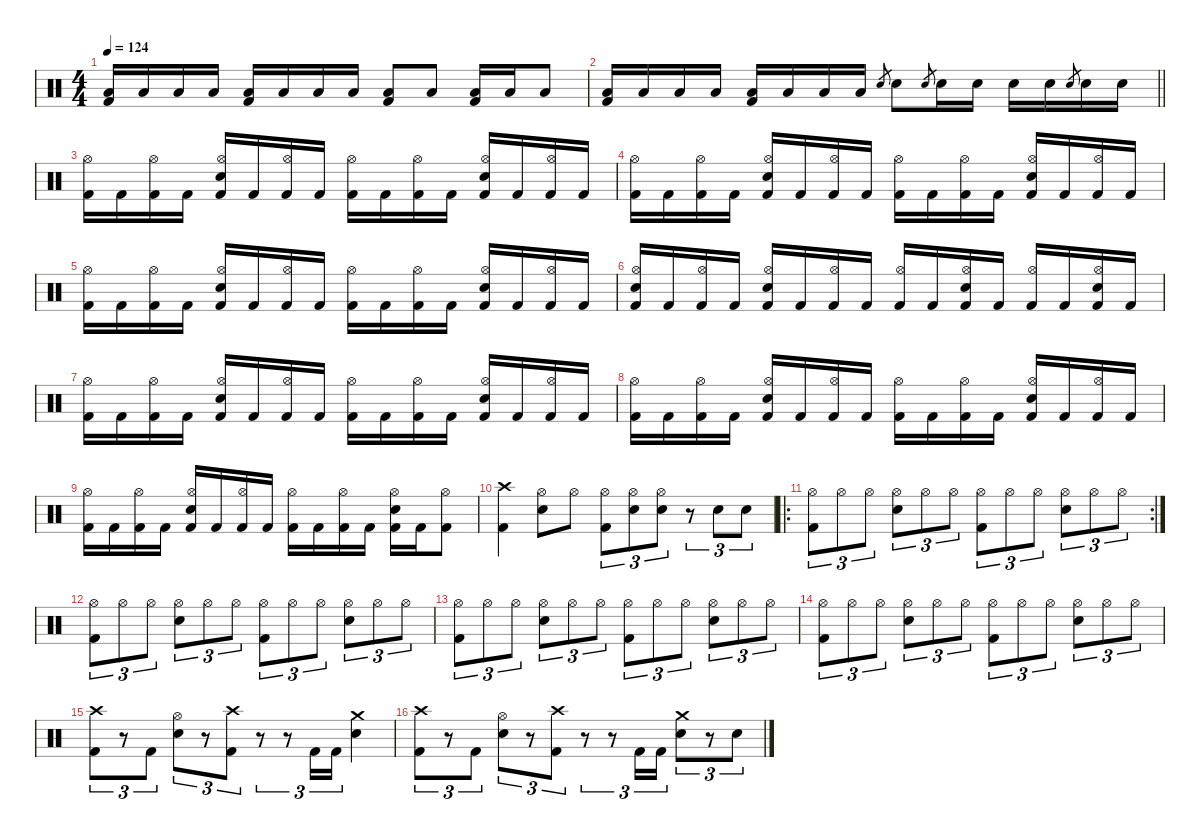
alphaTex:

\defaultSystemsLayout 4
\hideDynamics
\bracketExtendMode nobrackets
\singleTrackTrackNamePolicy hidden
\multiTrackTrackNamePolicy hidden
\otherSystemsTrackNameOrientation horizontal
\track ("Drums" "drm.") {defaultSystemsLayout 4 instrument percussion}
\staff {score}
\articulation defaults
\ts (4 4)
\tempo 124
\clef neutral
\ks c
("Low Floor Tom (hit)" "Kick (hit) 2").16{dy mf beam Up} "Low Floor Tom (hit)".16{dy mp beam Up} "Low Floor Tom (hit)".16{dy mf beam Up} "Low Floor Tom (hit)".16{dy mp beam Up} ("Low Floor Tom (hit)" "Kick (hit) 2").16{dy mf beam Up} "Low Floor Tom (hit)".16{dy mp beam Up} "Low Floor Tom (hit)".16{dy mf beam Up} "Low Floor Tom (hit)".16{dy p beam Up} ("Low Floor Tom (hit)" "Kick (hit) 2").8{dy mf beam Up} "Low Floor Tom (hit)".8{beam Up} ("Low Floor Tom (hit)" "Kick (hit) 2").16{beam Up} "Low Floor Tom (hit)".16{dy mp beam Up} "Low Floor Tom (hit)".8{dy mf beam Up} |
\barLineRight lightlight
("Low Floor Tom (hit)" "Kick (hit) 2").16{beam Up} "Low Floor Tom (hit)".16{dy mp beam Up} "Low Floor Tom (hit)".16{dy mf beam Up} "Low Floor Tom (hit)".16{dy mp beam Up} ("Low Floor Tom (hit)" "Kick (hit) 2").16{dy mf beam Up} "Low Floor Tom (hit)".16{dy mp beam Up} "Low Floor Tom (hit)".16{dy mf beam Up} "Low Floor Tom (hit)".16{dy p beam Up} "Electric Snare (hit)".8{gr dy mp beam Up} "Snare (hit) 2".8{dy f beam Down} "Electric Snare (hit)".8{gr dy mp beam Up} "Snare (hit) 2".16{dy f beam Down} "Snare (hit) 2".16{beam Down} "Snare (hit) 2".16{beam Down} "Snare (hit) 2".16{beam Down} "Electric Snare (hit)".8{gr dy mp beam Up} "Snare (hit) 2".16{dy ff beam Down} "Snare (hit) 2".16{beam Down} |
("Hi-Hat (open)" "Kick (hit) 2").16{dy mf beam Down} "Kick (hit) 2".16{dy ff beam Down} ("Hi-Hat (open)" "Kick (hit) 2").16{dy mf beam Down} "Kick (hit) 2".16{dy ff beam Down} ("Hi-Hat (open)" "Snare (hit) 2" "Kick (hit) 2").16{dy mf beam Up} "Kick (hit) 2".16{dy ff beam Up} ("Hi-Hat (open)" "Kick (hit) 2").16{dy mf beam Up} "Kick (hit) 2".16{dy ff beam Up} ("Hi-Hat (open)" "Kick (hit) 2").16{dy mf beam Down} "Kick (hit) 2".16{dy ff beam Down} ("Hi-Hat (open)" "Kick (hit) 2").16{dy mf beam Down} "Kick (hit) 2".16{dy ff beam Down} ("Hi-Hat (open)" "Snare (hit) 2" "Kick (hit) 2").16{dy mf beam Up} "Kick (hit) 2".16{dy ff beam Up} ("Hi-Hat (open)" "Kick (hit) 2").16{dy mf beam Up} "Kick (hit) 2".16{dy ff beam Up} |
("Hi-Hat (open)" "Kick (hit) 2").16{dy mf beam Down} "Kick (hit) 2".16{dy ff beam Down} ("Hi-Hat (open)" "Kick (hit) 2").16{dy mf beam Down} "Kick (hit) 2".16{dy ff beam Down} ("Hi-Hat (open)" "Snare (hit) 2" "Kick (hit) 2").16{dy mf beam Up} "Kick (hit) 2".16{dy ff beam Up} ("Hi-Hat (open)" "Kick (hit) 2").16{dy mf beam Up} "Kick (hit) 2".16{dy ff beam Up} ("Hi-Hat (open)" "Kick (hit) 2").16{dy mf beam Down} "Kick (hit) 2".16{dy ff beam Down} ("Hi-Hat (open)" "Kick (hit) 2").16{dy mf beam Down} "Kick (hit) 2".16{dy ff beam Down} ("Hi-Hat (open)" "Snare (hit) 2" "Kick (hit) 2").16{dy mf beam Up} "Kick (hit) 2".16{dy ff beam Up} ("Hi-Hat (open)" "Kick (hit) 2").16{dy mf beam Up} "Kick (hit) 2".16{dy ff beam Up} |
("Hi-Hat (open)" "Kick (hit) 2").16{dy mf beam Down} "Kick (hit) 2".16{dy ff beam Down} ("Hi-Hat (open)" "Kick (hit) 2").16{dy mf beam Down} "Kick (hit) 2".16{dy ff beam Down} ("Hi-Hat (open)" "Snare (hit) 2" "Kick (hit) 2").16{dy mf beam Up} "Kick (hit) 2".16{dy ff beam Up} ("Hi-Hat (open)" "Kick (hit) 2").16{dy mf beam Up} "Kick (hit) 2".16{dy ff beam Up} ("Hi-Hat (open)" "Kick (hit) 2").16{dy mf beam Down} "Kick (hit) 2".16{dy ff beam Down} ("Hi-Hat (open)" "Kick (hit) 2").16{dy mf beam Down} "Kick (hit) 2".16{dy ff beam Down} ("Hi-Hat (open)" "Snare (hit) 2" "Kick (hit) 2").16{dy mf beam Up} "Kick (hit) 2".16{dy ff beam Up} ("Hi-Hat (open)" "Kick (hit) 2").16{dy mf beam Up} "Kick (hit) 2".16{dy ff beam Up} |
("Hi-Hat (open)" "Snare (hit) 2" "Kick (hit) 2").16{dy mf beam Up} "Kick (hit) 2".16{dy ff beam Up} ("Hi-Hat (open)" "Kick (hit) 2").16{dy mf beam Up} "Kick (hit) 2".16{dy ff beam Up} ("Hi-Hat (open)" "Snare (hit) 2" "Kick (hit) 2").16{dy mf beam Up} "Kick (hit) 2".16{dy ff beam Up} ("Hi-Hat (open)" "Kick (hit) 2").16{dy mf beam Up} "Kick (hit) 2".16{dy ff beam Up} ("Hi-Hat (open)" "Kick (hit) 2").16{dy mf beam Up} "Kick (hit) 2".16{dy ff beam Up} ("Hi-Hat (open)" "Snare (hit) 2" "Kick (hit) 2").16{dy mf beam Up} "Kick (hit) 2".16{dy ff beam Up} ("Hi-Hat (open)" "Kick (hit) 2").16{dy mf beam Up} "Kick (hit) 2".16{dy ff beam Up} ("Hi-Hat (open)" "Snare (hit) 2" "Kick (hit) 2").16{dy mf beam Up} "Kick (hit) 2".16{dy ff beam Up} |
("Hi-Hat (open)" "Kick (hit) 2").16{dy mf beam Down} "Kick (hit) 2".16{dy ff beam Down} ("Hi-Hat (open)" "Kick (hit) 2").16{dy mf beam Down} "Kick (hit) 2".16{dy ff beam Down} ("Hi-Hat (open)" "Snare (hit) 2" "Kick (hit) 2").16{dy mf beam Up} "Kick (hit) 2".16{dy ff beam Up} ("Hi-Hat (open)" "Kick (hit) 2").16{dy mf beam Up} "Kick (hit) 2".16{dy ff beam Up} ("Hi-Hat (open)" "Kick (hit) 2").16{dy mf beam Down} "Kick (hit) 2".16{dy ff beam Down} ("Hi-Hat (open)" "Kick (hit) 2").16{dy mf beam Down} "Kick (hit) 2".16{dy ff beam Down} ("Hi-Hat (open)" "Snare (hit) 2" "Kick (hit) 2").16{dy mf beam Up} "Kick (hit) 2".16{dy ff beam Up} ("Hi-Hat (open)" "Kick (hit) 2").16{dy mf beam Up} "Kick (hit) 2".16{dy ff beam Up} |
("Hi-Hat (open)" "Kick (hit) 2").16{dy mf beam Down} "Kick (hit) 2".16{dy ff beam Down} ("Hi-Hat (open)" "Kick (hit) 2").16{dy mf beam Down} "Kick (hit) 2".16{dy ff beam Down} ("Hi-Hat (open)" "Snare (hit) 2" "Kick (hit) 2").16{dy mf beam Up} "Kick (hit) 2".16{dy ff beam Up} ("Hi-Hat (open)" "Kick (hit) 2").16{dy mf beam Up} "Kick (hit) 2".16{dy ff beam Up} ("Hi-Hat (open)" "Kick (hit) 2").16{dy mf beam Down} "Kick (hit) 2".16{dy ff beam Down} ("Hi-Hat (open)" "Kick (hit) 2").16{dy mf beam Down} "Kick (hit) 2".16{dy ff beam Down} ("Hi-Hat (open)" "Snare (hit) 2" "Kick (hit) 2").16{dy mf beam Up} "Kick (hit) 2".16{dy ff beam Up} ("Hi-Hat (open)" "Kick (hit) 2").16{dy mf beam Up} "Kick (hit) 2".16{dy ff beam Up} |
("Hi-Hat (open)" "Kick (hit) 2").16{dy mf beam Down} "Kick (hit) 2".16{dy ff beam Down} ("Hi-Hat (open)" "Kick (hit) 2").16{dy mf beam Down} "Kick (hit) 2".16{dy ff beam Down} ("Hi-Hat (open)" "Snare (hit) 2" "Kick (hit) 2").16{dy mf beam Up} "Kick (hit) 2".16{dy ff beam Up} ("Hi-Hat (open)" "Kick (hit) 2").16{dy mf beam Up} "Kick (hit) 2".16{dy ff beam Up} ("Hi-Hat (open)" "Kick (hit) 2").16{dy mf beam Down} "Kick (hit) 2".16{dy ff beam Down} ("Hi-Hat (open)" "Kick (hit) 2").16{dy mf beam Down} "Kick (hit) 2".16{dy ff beam Down} ("Hi-Hat (open)" "Snare (hit) 2" "Kick (hit) 2").16{dy mf beam Down} "Kick (hit) 2".16{dy ff beam Down} ("Hi-Hat (open)" "Kick (hit) 2").8{dy mf beam Down} |
("Crash high (hit)" "Kick (hit) 2").4{dy f beam Down} ("Hi-Hat (open)" "Snare (hit) 2").8{beam Down} "Hi-Hat (open)".8{beam Down} ("Hi-Hat (open)" "Kick (hit) 2").8{tu (3 2) beam Down} ("Hi-Hat (open)" "Snare (hit) 2").8{tu (3 2) beam Down} ("Hi-Hat (open)" "Snare (hit) 2").8{tu (3 2) beam Down} r.8{tu (3 2) beam Down} "Snare (hit) 2".8{tu (3 2) dy ff beam Down} "Snare (hit) 2".8{tu (3 2) beam Down} |
\ro
\rc 2
("Hi-Hat (open)" "Kick (hit) 2").8{tu (3 2) dy mf beam Down} "Hi-Hat (open)".8{tu (3 2) beam Down} "Hi-Hat (open)".8{tu (3 2) beam Down} ("Hi-Hat (open)" "Snare (hit) 2").8{tu (3 2) beam Down} "Hi-Hat (open)".8{tu (3 2) beam Down} "Hi-Hat (open)".8{tu (3 2) beam Down} ("Hi-Hat (open)" "Kick (hit) 2").8{tu (3 2) beam Down} "Hi-Hat (open)".8{tu (3 2) beam Down} "Hi-Hat (open)".8{tu (3 2) beam Down} ("Hi-Hat (open)" "Snare (hit) 2").8{tu (3 2) beam Down} "Hi-Hat (open)".8{tu (3 2) beam Down} "Hi-Hat (open)".8{tu (3 2) beam Down} |
("Hi-Hat (open)" "Kick (hit) 2").8{tu (3 2) beam Down} "Hi-Hat (open)".8{tu (3 2) beam Down} "Hi-Hat (open)".8{tu (3 2) beam Down} ("Hi-Hat (open)" "Snare (hit) 2").8{tu (3 2) beam Down} "Hi-Hat (open)".8{tu (3 2) beam Down} "Hi-Hat (open)".8{tu (3 2) beam Down} ("Hi-Hat (open)" "Kick (hit) 2").8{tu (3 2) beam Down} "Hi-Hat (open)".8{tu (3 2) beam Down} "Hi-Hat (open)".8{tu (3 2) beam Down} ("Hi-Hat (open)" "Snare (hit) 2").8{tu (3 2) beam Down} "Hi-Hat (open)".8{tu (3 2) beam Down} "Hi-Hat (open)".8{tu (3 2) beam Down} |
("Hi-Hat (open)" "Kick (hit) 2").8{tu (3 2) beam Down} "Hi-Hat (open)".8{tu (3 2) beam Down} "Hi-Hat (open)".8{tu (3 2) beam Down} ("Hi-Hat (open)" "Snare (hit) 2").8{tu (3 2) beam Down} "Hi-Hat (open)".8{tu (3 2) beam Down} "Hi-Hat (open)".8{tu (3 2) beam Down} ("Hi-Hat (open)" "Kick (hit) 2").8{tu (3 2) beam Down} "Hi-Hat (open)".8{tu (3 2) beam Down} "Hi-Hat (open)".8{tu (3 2) beam Down} ("Hi-Hat (open)" "Snare (hit) 2").8{tu (3 2) beam Down} "Hi-Hat (open)".8{tu (3 2) beam Down} "Hi-Hat (open)".8{tu (3 2) beam Down} |
("Hi-Hat (open)" "Kick (hit) 2").8{tu (3 2) beam Down} "Hi-Hat (open)".8{tu (3 2) beam Down} "Hi-Hat (open)".8{tu (3 2) beam Down} ("Hi-Hat (open)" "Snare (hit) 2").8{tu (3 2) beam Down} "Hi-Hat (open)".8{tu (3 2) beam Down} "Hi-Hat (open)".8{tu (3 2) beam Down} ("Hi-Hat (open)" "Kick (hit) 2").8{tu (3 2) beam Down} "Hi-Hat (open)".8{tu (3 2) beam Down} "Hi-Hat (open)".8{tu (3 2) beam Down} ("Hi-Hat (open)" "Snare (hit) 2").8{tu (3 2) beam Down} "Hi-Hat (open)".8{tu (3 2) beam Down} "Hi-Hat (open)".8{tu (3 2) beam Down} |
("Crash high (hit)" "Kick (hit) 2").8{tu (3 2) beam Down} r.8{tu (3 2) beam Down} "Kick (hit) 2".8{tu (3 2) dy ff beam Down} ("Hi-Hat (open)" "Snare (hit) 2").8{tu (3 2) dy mp beam Down} r.8{tu (3 2) beam Down} ("Crash high (hit)" "Kick (hit) 2").8{tu (3 2) beam Down} r.8{tu (3 2) beam Down} r.8{tu (3 2) beam Down} "Kick (hit) 2".16{tu (3 2) dy ff beam Up} "Kick (hit) 2".16{tu (3 2) beam Up} ("Crash medium (hit)" "Snare (hit) 2").4{dy mf beam Down} |
("Crash high (hit)" "Kick (hit) 2").8{tu (3 2) beam Down} r.8{tu (3 2) beam Down} "Kick (hit) 2".8{tu (3 2) dy ff beam Down} ("Hi-Hat (open)" "Snare (hit) 2").8{tu (3 2) dy mf beam Down} r.8{tu (3 2) beam Down} ("Crash high (hit)" "Kick (hit) 2").8{tu (3 2) dy mp beam Down} r.8{tu (3 2) beam Down} r.8{tu (3 2) beam Down} "Kick (hit) 2".16{tu (3 2) dy ff beam Up} "Kick (hit) 2".16{tu (3 2) beam Up} ("Crash medium (hit)" "Snare (hit) 2").8{tu (3 2) dy mf beam Down} r.8{tu (3 2) beam Down} "Snare (hit) 2".8{tu (3 2) dy ff beam Down}
